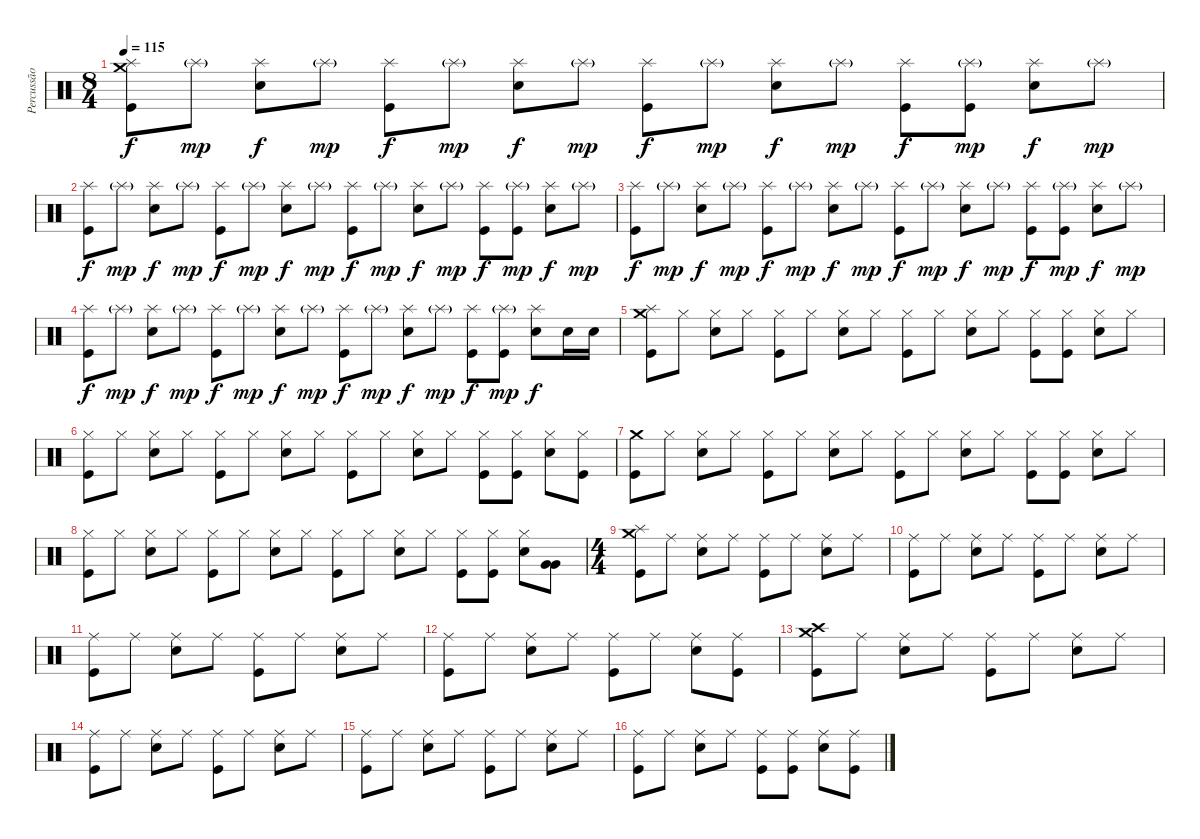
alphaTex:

\track ("Percussão" "Percussão") {instrument percussion}
\staff {score}
\articulation defaults
\ts (8 4)
\tempo 115
\clef neutral
\ks c
("Crash medium (hit)" "Splash (hit)" "Kick (hit)").8{dy f} "Splash (hit)"{g}.8{dy mp} ("Splash (hit)" "Electric Snare (hit)").8{dy f} "Splash (hit)"{g}.8{dy mp} ("Splash (hit)" "Kick (hit)").8{dy f} "Splash (hit)"{g}.8{dy mp} ("Splash (hit)" "Electric Snare (hit)").8{dy f} "Splash (hit)"{g}.8{dy mp} ("Splash (hit)" "Kick (hit)").8{dy f} "Splash (hit)"{g}.8{dy mp} ("Splash (hit)" "Electric Snare (hit)").8{dy f} "Splash (hit)"{g}.8{dy mp} ("Splash (hit)" "Kick (hit)").8{dy f} ("Splash (hit)"{g} "Kick (hit)").8{dy mp} ("Splash (hit)" "Electric Snare (hit)").8{dy f} "Splash (hit)"{g}.8{dy mp} |
("Splash (hit)" "Kick (hit)").8{dy f} "Splash (hit)"{g}.8{dy mp} ("Splash (hit)" "Electric Snare (hit)").8{dy f} "Splash (hit)"{g}.8{dy mp} ("Splash (hit)" "Kick (hit)").8{dy f} "Splash (hit)"{g}.8{dy mp} ("Splash (hit)" "Electric Snare (hit)").8{dy f} "Splash (hit)"{g}.8{dy mp} ("Splash (hit)" "Kick (hit)").8{dy f} "Splash (hit)"{g}.8{dy mp} ("Splash (hit)" "Electric Snare (hit)").8{dy f} "Splash (hit)"{g}.8{dy mp} ("Splash (hit)" "Kick (hit)").8{dy f} ("Splash (hit)"{g} "Kick (hit)").8{dy mp} ("Splash (hit)" "Electric Snare (hit)").8{dy f} "Splash (hit)"{g}.8{dy mp} |
("Splash (hit)" "Kick (hit)").8{dy f} "Splash (hit)"{g}.8{dy mp} ("Splash (hit)" "Electric Snare (hit)").8{dy f} "Splash (hit)"{g}.8{dy mp} ("Splash (hit)" "Kick (hit)").8{dy f} "Splash (hit)"{g}.8{dy mp} ("Splash (hit)" "Electric Snare (hit)").8{dy f} "Splash (hit)"{g}.8{dy mp} ("Splash (hit)" "Kick (hit)").8{dy f} "Splash (hit)"{g}.8{dy mp} ("Splash (hit)" "Electric Snare (hit)").8{dy f} "Splash (hit)"{g}.8{dy mp} ("Splash (hit)" "Kick (hit)").8{dy f} ("Splash (hit)"{g} "Kick (hit)").8{dy mp} ("Splash (hit)" "Electric Snare (hit)").8{dy f} "Splash (hit)"{g}.8{dy mp} |
("Splash (hit)" "Kick (hit)").8{dy f} "Splash (hit)"{g}.8{dy mp} ("Splash (hit)" "Electric Snare (hit)").8{dy f} "Splash (hit)"{g}.8{dy mp} ("Splash (hit)" "Kick (hit)").8{dy f} "Splash (hit)"{g}.8{dy mp} ("Splash (hit)" "Electric Snare (hit)").8{dy f} "Splash (hit)"{g}.8{dy mp} ("Splash (hit)" "Kick (hit)").8{dy f} "Splash (hit)"{g}.8{dy mp} ("Splash (hit)" "Electric Snare (hit)").8{dy f} "Splash (hit)"{g}.8{dy mp} ("Splash (hit)" "Kick (hit)").8{dy f} ("Splash (hit)"{g} "Kick (hit)").8{dy mp} ("Splash (hit)" "Electric Snare (hit)").8{dy f} "Electric Snare (hit)".16 "Electric Snare (hit)".16 |
("Crash medium (hit)" "Splash (hit)" "Kick (hit)").8 "Hi-Hat (closed)".8 ("Hi-Hat (closed)" "Electric Snare (hit)").8 "Hi-Hat (closed)".8 ("Hi-Hat (closed)" "Kick (hit)").8 "Hi-Hat (closed)".8 ("Hi-Hat (closed)" "Electric Snare (hit)").8 "Hi-Hat (closed)".8 ("Hi-Hat (closed)" "Kick (hit)").8 "Hi-Hat (closed)".8 ("Hi-Hat (closed)" "Electric Snare (hit)").8 "Hi-Hat (closed)".8 ("Hi-Hat (closed)" "Kick (hit)").8 ("Hi-Hat (closed)" "Kick (hit)").8 ("Hi-Hat (closed)" "Electric Snare (hit)").8 "Hi-Hat (closed)".8 |
("Hi-Hat (closed)" "Kick (hit)").8 "Hi-Hat (closed)".8 ("Hi-Hat (closed)" "Electric Snare (hit)").8 "Hi-Hat (closed)".8 ("Hi-Hat (closed)" "Kick (hit)").8 "Hi-Hat (closed)".8 ("Hi-Hat (closed)" "Electric Snare (hit)").8 "Hi-Hat (closed)".8 ("Hi-Hat (closed)" "Kick (hit)").8 "Hi-Hat (closed)".8 ("Hi-Hat (closed)" "Electric Snare (hit)").8 "Hi-Hat (closed)".8 ("Hi-Hat (closed)" "Kick (hit)").8 ("Hi-Hat (closed)" "Kick (hit)").8 ("Hi-Hat (closed)" "Electric Snare (hit)").8 ("Hi-Hat (closed)" "Kick (hit)").8 |
("Crash medium (hit)" "Kick (hit)").8 "Hi-Hat (closed)".8 ("Hi-Hat (closed)" "Electric Snare (hit)").8 "Hi-Hat (closed)".8 ("Hi-Hat (closed)" "Kick (hit)").8 "Hi-Hat (closed)".8 ("Hi-Hat (closed)" "Electric Snare (hit)").8 "Hi-Hat (closed)".8 ("Hi-Hat (closed)" "Kick (hit)").8 "Hi-Hat (closed)".8 ("Hi-Hat (closed)" "Electric Snare (hit)").8 "Hi-Hat (closed)".8 ("Hi-Hat (closed)" "Kick (hit)").8 ("Hi-Hat (closed)" "Kick (hit)").8 ("Hi-Hat (closed)" "Electric Snare (hit)").8 "Hi-Hat (closed)".8 |
("Hi-Hat (closed)" "Kick (hit)").8 "Hi-Hat (closed)".8 ("Hi-Hat (closed)" "Electric Snare (hit)").8 "Hi-Hat (closed)".8 ("Hi-Hat (closed)" "Kick (hit)").8 "Hi-Hat (closed)".8 ("Hi-Hat (closed)" "Electric Snare (hit)").8 "Hi-Hat (closed)".8 ("Hi-Hat (closed)" "Kick (hit)").8 "Hi-Hat (closed)".8 ("Hi-Hat (closed)" "Electric Snare (hit)").8 "Hi-Hat (closed)".8 ("Hi-Hat (closed)" "Kick (hit)").8 ("Hi-Hat (closed)" "Kick (hit)").8 ("Hi-Hat (closed)" "Electric Snare (hit)").8 ("Very Low Tom (hit)" "Very Low Tom (hit)").8 |
\ts (4 4)
("Crash medium (hit)" "Splash (hit)" "Kick (hit)").8 "Ride (middle)".8 ("Ride (middle)" "Electric Snare (hit)").8 "Ride (middle)".8 ("Ride (middle)" "Kick (hit)").8 "Ride (middle)".8 ("Ride (middle)" "Electric Snare (hit)").8 "Ride (middle)".8 |
("Ride (middle)" "Kick (hit)").8 "Ride (middle)".8 ("Ride (middle)" "Electric Snare (hit)").8 "Ride (middle)".8 ("Ride (middle)" "Kick (hit)").8 "Ride (middle)".8 ("Ride (middle)" "Electric Snare (hit)").8 "Ride (middle)".8 |
("Ride (middle)" "Kick (hit)").8 "Ride (middle)".8 ("Ride (middle)" "Electric Snare (hit)").8 "Ride (middle)".8 ("Ride (middle)" "Kick (hit)").8 "Ride (middle)".8 ("Ride (middle)" "Electric Snare (hit)").8 "Ride (middle)".8 |
("Ride (middle)" "Kick (hit)").8 "Ride (middle)".8 ("Ride (middle)" "Electric Snare (hit)").8 "Ride (middle)".8 ("Ride (middle)" "Kick (hit)").8 "Ride (middle)".8 ("Ride (middle)" "Electric Snare (hit)").8 ("Ride (middle)" "Kick (hit)").8 |
("Crash medium (hit)" "Crash high (hit)" "Kick (hit)").8 "Ride (middle)".8 ("Ride (middle)" "Electric Snare (hit)").8 "Ride (middle)".8 ("Ride (middle)" "Kick (hit)").8 "Ride (middle)".8 ("Ride (middle)" "Electric Snare (hit)").8 "Ride (middle)".8 |
("Ride (middle)" "Kick (hit)").8 "Ride (middle)".8 ("Ride (middle)" "Electric Snare (hit)").8 "Ride (middle)".8 ("Ride (middle)" "Kick (hit)").8 "Ride (middle)".8 ("Ride (middle)" "Electric Snare (hit)").8 "Ride (middle)".8 |
("Ride (middle)" "Kick (hit)").8 "Ride (middle)".8 ("Ride (middle)" "Electric Snare (hit)").8 "Ride (middle)".8 ("Ride (middle)" "Kick (hit)").8 "Ride (middle)".8 ("Ride (middle)" "Electric Snare (hit)").8 "Ride (middle)".8 |
("Ride (middle)" "Kick (hit)").8 "Ride (middle)".8 ("Ride (middle)" "Electric Snare (hit)").8 "Ride (middle)".8 ("Ride (middle)" "Kick (hit)").8 ("Ride (middle)" "Kick (hit)").8 ("Ride (middle)" "Electric Snare (hit)").8 ("Ride (middle)" "Kick (hit)").8
